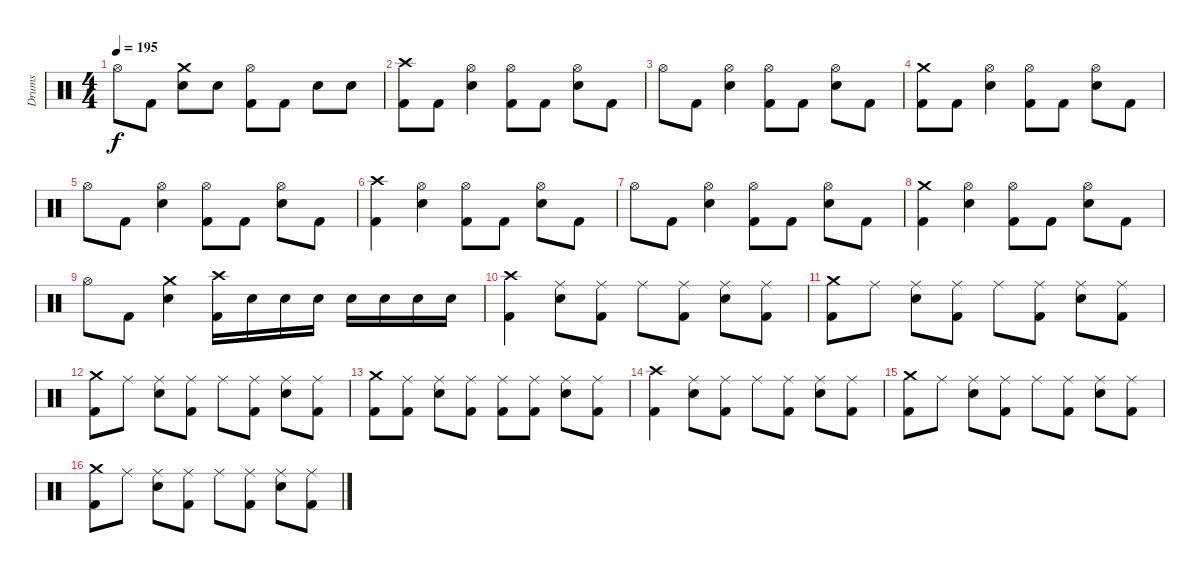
\track ("Drums" "Drums") {instrument percussion}
\staff {score}
\articulation defaults
\ts (4 4)
\tempo 195
\clef neutral
\ks c "Hi-Hat (open)".8{dy f} "Kick (hit) 2".8
("Crash medium (hit)" "Electric Snare (hit)").8 "Electric Snare (hit)".8 ("Hi-Hat (open)" "Kick (hit) 2").8 "Kick (hit) 2".8 "Electric Snare (hit)".8 "Electric Snare (hit)".8 |
("Crash high (hit)" "Kick (hit) 2").8 "Kick (hit) 2".8 ("Hi-Hat (open)" "Electric Snare (hit)").4 ("Hi-Hat (open)" "Kick (hit) 2").8 "Kick (hit) 2".8 ("Hi-Hat (open)" "Electric Snare (hit)").8 "Kick (hit) 2".8 |
"Hi-Hat (open)".8 "Kick (hit) 2".8 ("Hi-Hat (open)" "Electric Snare (hit)").4 ("Hi-Hat (open)" "Kick (hit) 2").8 "Kick (hit) 2".8 ("Hi-Hat (open)" "Electric Snare (hit)").8 "Kick (hit) 2".8 |
("Crash medium (hit)" "Kick (hit) 2").8 "Kick (hit) 2".8 ("Hi-Hat (open)" "Electric Snare (hit)").4 ("Hi-Hat (open)" "Kick (hit) 2").8 "Kick (hit) 2".8 ("Hi-Hat (open)" "Electric Snare (hit)").8 "Kick (hit) 2".8 |
"Hi-Hat (open)".8 "Kick (hit) 2".8 ("Hi-Hat (open)" "Electric Snare (hit)").4 ("Hi-Hat (open)" "Kick (hit) 2").8 "Kick (hit) 2".8 ("Hi-Hat (open)" "Electric Snare (hit)").8 "Kick (hit) 2".8 |
("Crash high (hit)" "Kick (hit) 2").4 ("Hi-Hat (open)" "Electric Snare (hit)").4 ("Hi-Hat (open)" "Kick (hit) 2").8 "Kick (hit) 2".8 ("Hi-Hat (open)" "Electric Snare (hit)").8 "Kick (hit) 2".8 |
"Hi-Hat (open)".8 "Kick (hit) 2".8 ("Hi-Hat (open)" "Electric Snare (hit)").4 ("Hi-Hat (open)" "Kick (hit) 2").8 "Kick (hit) 2".8 ("Hi-Hat (open)" "Electric Snare (hit)").8 "Kick (hit) 2".8 |
("Crash medium (hit)" "Kick (hit) 2").4 ("Hi-Hat (open)" "Electric Snare (hit)").4 ("Hi-Hat (open)" "Kick (hit) 2").8 "Kick (hit) 2".8 ("Hi-Hat (open)" "Electric Snare (hit)").8 "Kick (hit) 2".8 |
"Hi-Hat (open)".8 "Kick (hit) 2".8 ("Crash medium (hit)" "Electric Snare (hit)").4 ("Crash high (hit)" "Kick (hit) 2").16 "Electric Snare (hit)".16 "Electric Snare (hit)".16 "Electric Snare (hit)".16 "Electric Snare (hit)".16 "Electric Snare (hit)".16 "Electric Snare (hit)".16 "Electric Snare (hit)".16 |
("Crash high (hit)" "Kick (hit) 2").4 ("Ride (middle)" "Electric Snare (hit)").8 ("Ride (middle)" "Kick (hit) 2").8 "Ride (middle)".8 ("Ride (middle)" "Kick (hit) 2").8 ("Ride (middle)" "Electric Snare (hit)").8 ("Ride (middle)" "Kick (hit) 2").8 |
("Crash medium (hit)" "Kick (hit) 2").8 "Ride (middle)".8 ("Ride (middle)" "Electric Snare (hit)").8 ("Ride (middle)" "Kick (hit) 2").8 "Ride (middle)".8 ("Ride (middle)" "Kick (hit) 2").8 ("Ride (middle)" "Electric Snare (hit)").8 ("Ride (middle)" "Kick (hit) 2").8 |
("Crash medium (hit)" "Kick (hit) 2").8 "Ride (middle)".8 ("Ride (middle)" "Electric Snare (hit)").8 ("Ride (middle)" "Kick (hit) 2").8 "Ride (middle)".8 ("Ride (middle)" "Kick (hit) 2").8 ("Ride (middle)" "Electric Snare (hit)").8 ("Ride (middle)" "Kick (hit) 2").8 |
("Crash medium (hit)" "Kick (hit) 2").8 ("Ride (middle)" "Kick (hit) 2").8 ("Ride (middle)" "Electric Snare (hit)").8 ("Ride (middle)" "Kick (hit) 2").8 ("Ride (middle)" "Kick (hit) 2").8 ("Ride (middle)" "Kick (hit) 2").8 ("Ride (middle)" "Electric Snare (hit)").8 ("Ride (middle)" "Kick (hit) 2").8 |
("Crash high (hit)" "Kick (hit) 2").4 ("Ride (middle)" "Electric Snare (hit)").8 ("Ride (middle)" "Kick (hit) 2").8 "Ride (middle)".8 ("Ride (middle)" "Kick (hit) 2").8 ("Ride (middle)" "Electric Snare (hit)").8 ("Ride (middle)" "Kick (hit) 2").8 |
("Crash medium (hit)" "Kick (hit) 2").8 "Ride (middle)".8 ("Ride (middle)" "Electric Snare (hit)").8 ("Ride (middle)" "Kick (hit) 2").8 "Ride (middle)".8 ("Ride (middle)" "Kick (hit) 2").8 ("Ride (middle)" "Electric Snare (hit)").8 ("Ride (middle)" "Kick (hit) 2").8 |
("Crash medium (hit)" "Kick (hit) 2").8 "Ride (middle)".8 ("Ride (middle)" "Electric Snare (hit)").8 ("Ride (middle)" "Kick (hit) 2").8 "Ride (middle)".8 ("Ride (middle)" "Kick (hit) 2").8 ("Ride (middle)" "Electric Snare (hit)").8 ("Ride (middle)" "Kick (hit) 2").8
